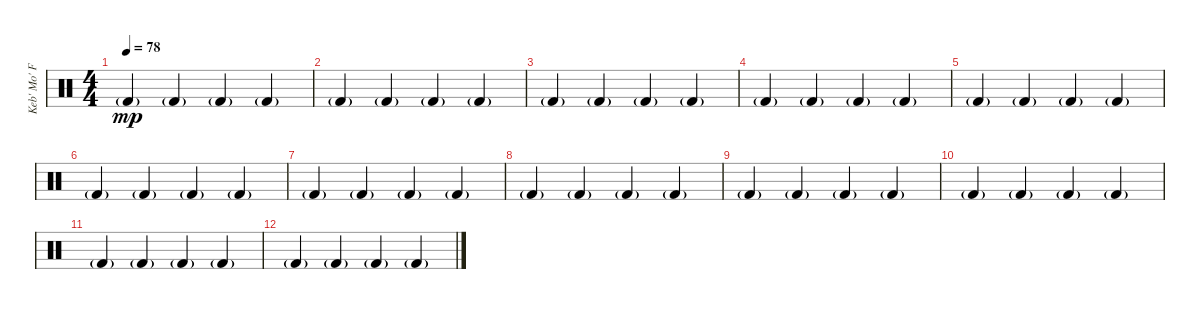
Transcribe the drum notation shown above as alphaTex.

\track ("Keb' Mo' Footstomp" "Keb' Mo' F") {instrument percussion}
\staff {score}
\articulation defaults
\ts (4 4)
\tempo 78
\clef neutral
\ks c "Kick (hit) 2"{g}.4{dy mp} "Kick (hit) 2"{g}.4 "Kick (hit) 2"{g}.4 "Kick (hit) 2"{g}.4
|
"Kick (hit) 2"{g}.4 "Kick (hit) 2"{g}.4 "Kick (hit) 2"{g}.4 "Kick (hit) 2"{g}.4 |
"Kick (hit) 2"{g}.4 "Kick (hit) 2"{g}.4 "Kick (hit) 2"{g}.4 "Kick (hit) 2"{g}.4 |
"Kick (hit) 2"{g}.4 "Kick (hit) 2"{g}.4 "Kick (hit) 2"{g}.4 "Kick (hit) 2"{g}.4 |
"Kick (hit) 2"{g}.4 "Kick (hit) 2"{g}.4 "Kick (hit) 2"{g}.4 "Kick (hit) 2"{g}.4 |
"Kick (hit) 2"{g}.4 "Kick (hit) 2"{g}.4 "Kick (hit) 2"{g}.4 "Kick (hit) 2"{g}.4 |
"Kick (hit) 2"{g}.4 "Kick (hit) 2"{g}.4 "Kick (hit) 2"{g}.4 "Kick (hit) 2"{g}.4 |
"Kick (hit) 2"{g}.4 "Kick (hit) 2"{g}.4 "Kick (hit) 2"{g}.4 "Kick (hit) 2"{g}.4 |
"Kick (hit) 2"{g}.4 "Kick (hit) 2"{g}.4 "Kick (hit) 2"{g}.4 "Kick (hit) 2"{g}.4 |
"Kick (hit) 2"{g}.4 "Kick (hit) 2"{g}.4 "Kick (hit) 2"{g}.4 "Kick (hit) 2"{g}.4 |
"Kick (hit) 2"{g}.4 "Kick (hit) 2"{g}.4 "Kick (hit) 2"{g}.4 "Kick (hit) 2"{g}.4 |
"Kick (hit) 2"{g}.4 "Kick (hit) 2"{g}.4 "Kick (hit) 2"{g}.4 "Kick (hit) 2"{g}.4
